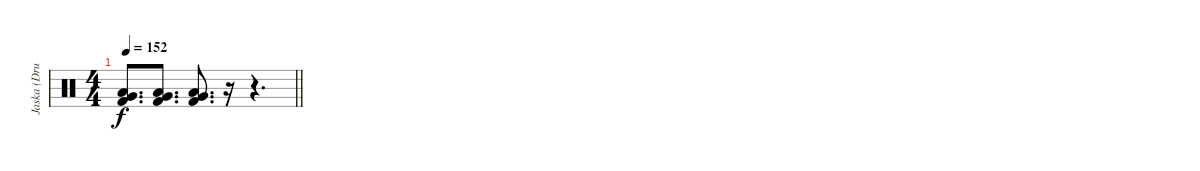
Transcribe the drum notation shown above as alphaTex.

\track ("Jaska (Drums)" "Jaska (Dru") {instrument percussion}
\staff {score}
\articulation defaults
\ts (4 4)
\tempo 152
\clef neutral
\barLineRight lightlight
\ks c
("Very Low Tom (hit)" "Low Floor Tom (hit)" "Kick (hit) 2").8{d dy f} ("Very Low Tom (hit)" "Low Floor Tom (hit)" "Kick (hit) 2").8{d} ("Very Low Tom (hit)" "Low Floor Tom (hit)" "Kick (hit) 2").8{d} r.16 r.4{d}
